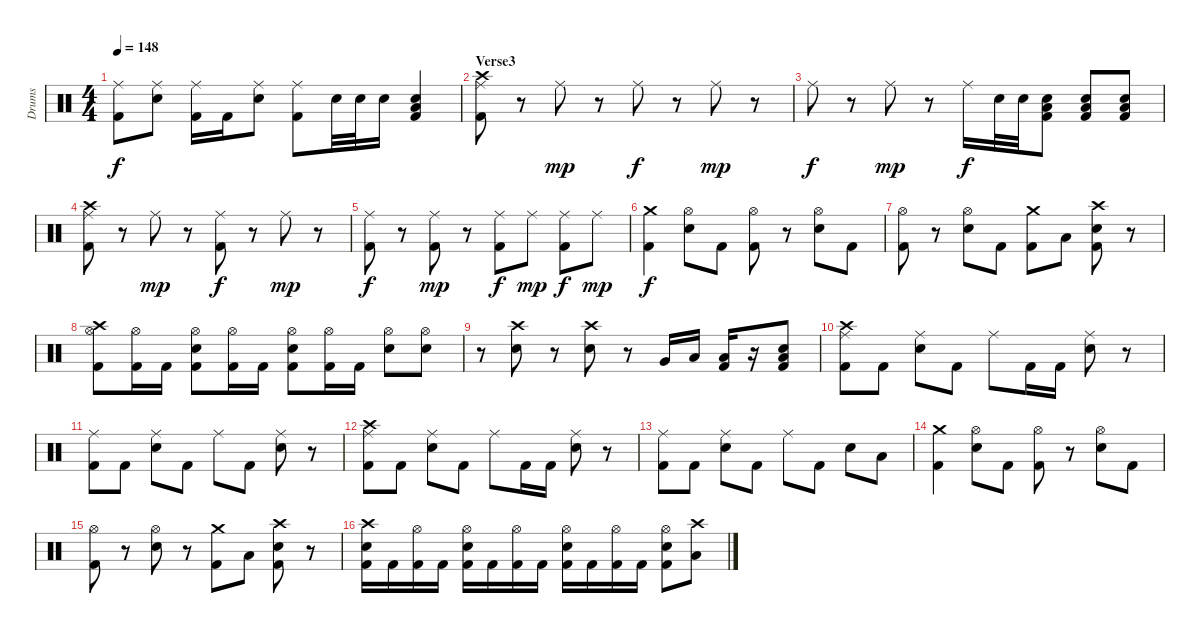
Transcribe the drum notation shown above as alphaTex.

\track ("Drums" "Drums") {instrument percussion}
\staff {score}
\articulation defaults
\ts (4 4)
\tempo 148
\clef neutral
\ks c
("Kick (hit) 2" "Ride (middle)").8{dy f} ("Electric Snare (hit)" "Ride (middle)").8 ("Kick (hit) 2" "Ride (middle)").16 "Kick (hit) 2".16 ("Electric Snare (hit)" "Ride (middle)").8 ("Kick (hit) 2" "Ride (middle)").8 "Electric Snare (hit)".32 "Electric Snare (hit)".32 "Electric Snare (hit)".16 ("Kick (hit) 2" "Electric Snare (hit)" "Low Floor Tom (hit)").4 |
\section ("" "Verse3")
("Kick (hit) 2" "Ride (middle)" "Crash high (hit)").8 r.8 "Ride (middle)".8{dy mp} r.8 "Ride (middle)".8{dy f} r.8 "Ride (middle)".8{dy mp} r.8 |
"Ride (middle)".8{dy f} r.8 "Ride (middle)".8{dy mp} r.8 "Ride (middle)".16{dy f} "Electric Snare (hit)".32 "Electric Snare (hit)".32 ("Kick (hit) 2" "Electric Snare (hit)" "Low Floor Tom (hit)").8 ("Kick (hit) 2" "Electric Snare (hit)" "Low Floor Tom (hit)").8 ("Kick (hit) 2" "Electric Snare (hit)" "Low Floor Tom (hit)").8 |
("Kick (hit) 2" "Ride (middle)" "Crash high (hit)").8 r.8 "Ride (middle)".8{dy mp} r.8 ("Kick (hit) 2" "Ride (middle)").8{dy f} r.8 "Ride (middle)".8{dy mp} r.8 |
("Kick (hit) 2" "Ride (middle)").8{dy f} r.8 ("Kick (hit) 2" "Ride (middle)").8{dy mp} r.8 ("Kick (hit) 2" "Ride (middle)").8{dy f} "Ride (middle)".8{dy mp} ("Kick (hit) 2" "Ride (middle)").8{dy f} "Ride (middle)".8{dy mp} |
("Kick (hit) 2" "Crash medium (hit)").4{dy f} ("Electric Snare (hit)" "Hi-Hat (open)").8 "Kick (hit) 2".8 ("Kick (hit) 2" "Hi-Hat (open)").8 r.8 ("Electric Snare (hit)" "Hi-Hat (open)").8 "Kick (hit) 2".8 |
("Kick (hit) 2" "Hi-Hat (open)").8 r.8 ("Electric Snare (hit)" "Hi-Hat (open)").8 "Kick (hit) 2".8 ("Kick (hit) 2" "Crash medium (hit)").8 "Low Tom (hit)".8 ("Kick (hit) 2" "Electric Snare (hit)" "Crash high (hit)").8 r.8 |
("Kick (hit) 2" "Hi-Hat (open)" "Crash high (hit)").8 ("Kick (hit) 2" "Hi-Hat (open)").16 "Kick (hit) 2".16 ("Kick (hit) 2" "Electric Snare (hit)" "Hi-Hat (open)").8 ("Kick (hit) 2" "Hi-Hat (open)").16 "Kick (hit) 2".16 ("Kick (hit) 2" "Electric Snare (hit)" "Hi-Hat (open)").8 ("Kick (hit) 2" "Hi-Hat (open)").16 "Kick (hit) 2".16 ("Electric Snare (hit)" "Hi-Hat (open)").8 ("Electric Snare (hit)" "Hi-Hat (open)").8 |
r.8 ("Electric Snare (hit)" "Crash high (hit)").8 r.8 ("Electric Snare (hit)" "Crash high (hit)").8 r.8 "Very Low Tom (hit)".16 "Low Tom (hit)".16 ("Kick (hit) 2" "Low Tom (hit)").16 r.16 ("Kick (hit) 2" "Electric Snare (hit)" "Low Floor Tom (hit)").8 |
("Kick (hit) 2" "Ride (middle)" "Crash high (hit)").8 "Kick (hit) 2".8 ("Electric Snare (hit)" "Ride (middle)").8 "Kick (hit) 2".8 "Ride (middle)".8 "Kick (hit) 2".16 "Kick (hit) 2".16 ("Electric Snare (hit)" "Ride (middle)").8 r.8 |
("Kick (hit) 2" "Ride (middle)").8 "Kick (hit) 2".8 ("Electric Snare (hit)" "Ride (middle)").8 "Kick (hit) 2".8 "Ride (middle)".8 "Kick (hit) 2".8 ("Electric Snare (hit)" "Ride (middle)").8 r.8 |
("Kick (hit) 2" "Ride (middle)" "Crash high (hit)").8 "Kick (hit) 2".8 ("Electric Snare (hit)" "Ride (middle)").8 "Kick (hit) 2".8 "Ride (middle)".8 "Kick (hit) 2".16 "Kick (hit) 2".16 ("Electric Snare (hit)" "Ride (middle)").8 r.8 |
("Kick (hit) 2" "Ride (middle)").8 "Kick (hit) 2".8 ("Electric Snare (hit)" "Ride (middle)").8 "Kick (hit) 2".8 "Ride (middle)".8 "Kick (hit) 2".8 "Electric Snare (hit)".8 "Low Floor Tom (hit)".8 |
("Kick (hit) 2" "Crash medium (hit)").4 ("Electric Snare (hit)" "Hi-Hat (open)").8 "Kick (hit) 2".8 ("Kick (hit) 2" "Hi-Hat (open)").8 r.8 ("Electric Snare (hit)" "Hi-Hat (open)").8 "Kick (hit) 2".8 |
("Kick (hit) 2" "Hi-Hat (open)").8 r.8 ("Electric Snare (hit)" "Hi-Hat (open)").8 r.8 ("Kick (hit) 2" "Crash medium (hit)").8 "Low Tom (hit)".8 ("Kick (hit) 2" "Electric Snare (hit)" "Crash high (hit)").8 r.8 |
("Kick (hit) 2" "Electric Snare (hit)" "Crash high (hit)").16 "Kick (hit) 2".16 ("Kick (hit) 2" "Hi-Hat (open)").16 "Kick (hit) 2".16 ("Kick (hit) 2" "Electric Snare (hit)" "Hi-Hat (open)").16 "Kick (hit) 2".16 ("Kick (hit) 2" "Hi-Hat (open)").16 "Kick (hit) 2".16 ("Kick (hit) 2" "Electric Snare (hit)" "Hi-Hat (open)").16 "Kick (hit) 2".16 ("Kick (hit) 2" "Hi-Hat (open)").16 "Kick (hit) 2".16 ("Kick (hit) 2" "Electric Snare (hit)" "Hi-Hat (open)").8 ("Low Floor Tom (hit)" "Crash high (hit)").8
